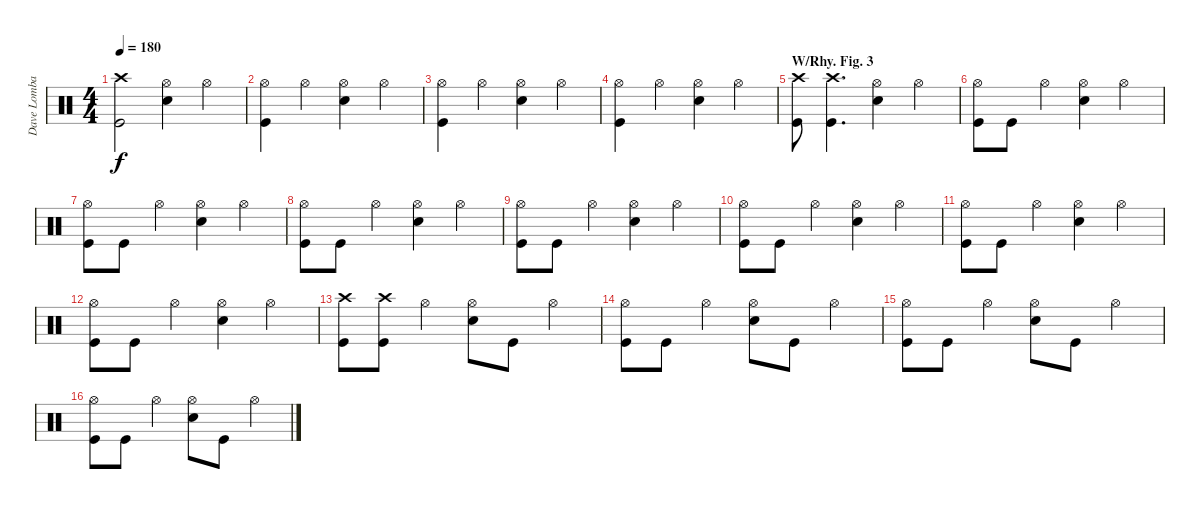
\track ("Dave Lombardo" "Dave Lomba") {instrument percussion}
\staff {score}
\articulation defaults
\ts (4 4)
\tempo 180
\clef neutral
\ks c
("Crash high (hit)" "Kick (hit)").2{dy f} ("Hi-Hat (open)" "Snare (hit) 2").4 "Hi-Hat (open)".4 |
("Hi-Hat (open)" "Kick (hit)").4 "Hi-Hat (open)".4 ("Hi-Hat (open)" "Snare (hit) 2").4 "Hi-Hat (open)".4 |
("Hi-Hat (open)" "Kick (hit)").4 "Hi-Hat (open)".4 ("Hi-Hat (open)" "Snare (hit) 2").4 "Hi-Hat (open)".4 |
("Hi-Hat (open)" "Kick (hit)").4 "Hi-Hat (open)".4 ("Hi-Hat (open)" "Snare (hit) 2").4 "Hi-Hat (open)".4 |
\section ("" "W/Rhy. Fig. 3")
("Crash high (hit)" "Kick (hit)").8 ("Crash high (hit)" "Kick (hit)").4{d} ("Hi-Hat (open)" "Snare (hit) 2").4 "Hi-Hat (open)".4 |
("Hi-Hat (open)" "Kick (hit)").8 "Kick (hit)".8 "Hi-Hat (open)".4 ("Hi-Hat (open)" "Snare (hit) 2").4 "Hi-Hat (open)".4 |
("Hi-Hat (open)" "Kick (hit)").8 "Kick (hit)".8 "Hi-Hat (open)".4 ("Hi-Hat (open)" "Snare (hit) 2").4 "Hi-Hat (open)".4 |
("Hi-Hat (open)" "Kick (hit)").8 "Kick (hit)".8 "Hi-Hat (open)".4 ("Hi-Hat (open)" "Snare (hit) 2").4 "Hi-Hat (open)".4 |
("Hi-Hat (open)" "Kick (hit)").8 "Kick (hit)".8 "Hi-Hat (open)".4 ("Hi-Hat (open)" "Snare (hit) 2").4 "Hi-Hat (open)".4 |
("Hi-Hat (open)" "Kick (hit)").8 "Kick (hit)".8 "Hi-Hat (open)".4 ("Hi-Hat (open)" "Snare (hit) 2").4 "Hi-Hat (open)".4 |
("Hi-Hat (open)" "Kick (hit)").8 "Kick (hit)".8 "Hi-Hat (open)".4 ("Hi-Hat (open)" "Snare (hit) 2").4 "Hi-Hat (open)".4 |
("Hi-Hat (open)" "Kick (hit)").8 "Kick (hit)".8 "Hi-Hat (open)".4 ("Hi-Hat (open)" "Snare (hit) 2").4 "Hi-Hat (open)".4 |
("Crash high (hit)" "Kick (hit)").8 ("Crash high (hit)" "Kick (hit)").8 "Hi-Hat (open)".4 ("Hi-Hat (open)" "Snare (hit) 2").8 "Kick (hit)".8 "Hi-Hat (open)".4 |
("Hi-Hat (open)" "Kick (hit)").8 "Kick (hit)".8 "Hi-Hat (open)".4 ("Hi-Hat (open)" "Snare (hit) 2").8 "Kick (hit)".8 "Hi-Hat (open)".4 |
("Hi-Hat (open)" "Kick (hit)").8 "Kick (hit)".8 "Hi-Hat (open)".4 ("Hi-Hat (open)" "Snare (hit) 2").8 "Kick (hit)".8 "Hi-Hat (open)".4 |
("Hi-Hat (open)" "Kick (hit)").8 "Kick (hit)".8 "Hi-Hat (open)".4 ("Hi-Hat (open)" "Snare (hit) 2").8 "Kick (hit)".8 "Hi-Hat (open)".4
